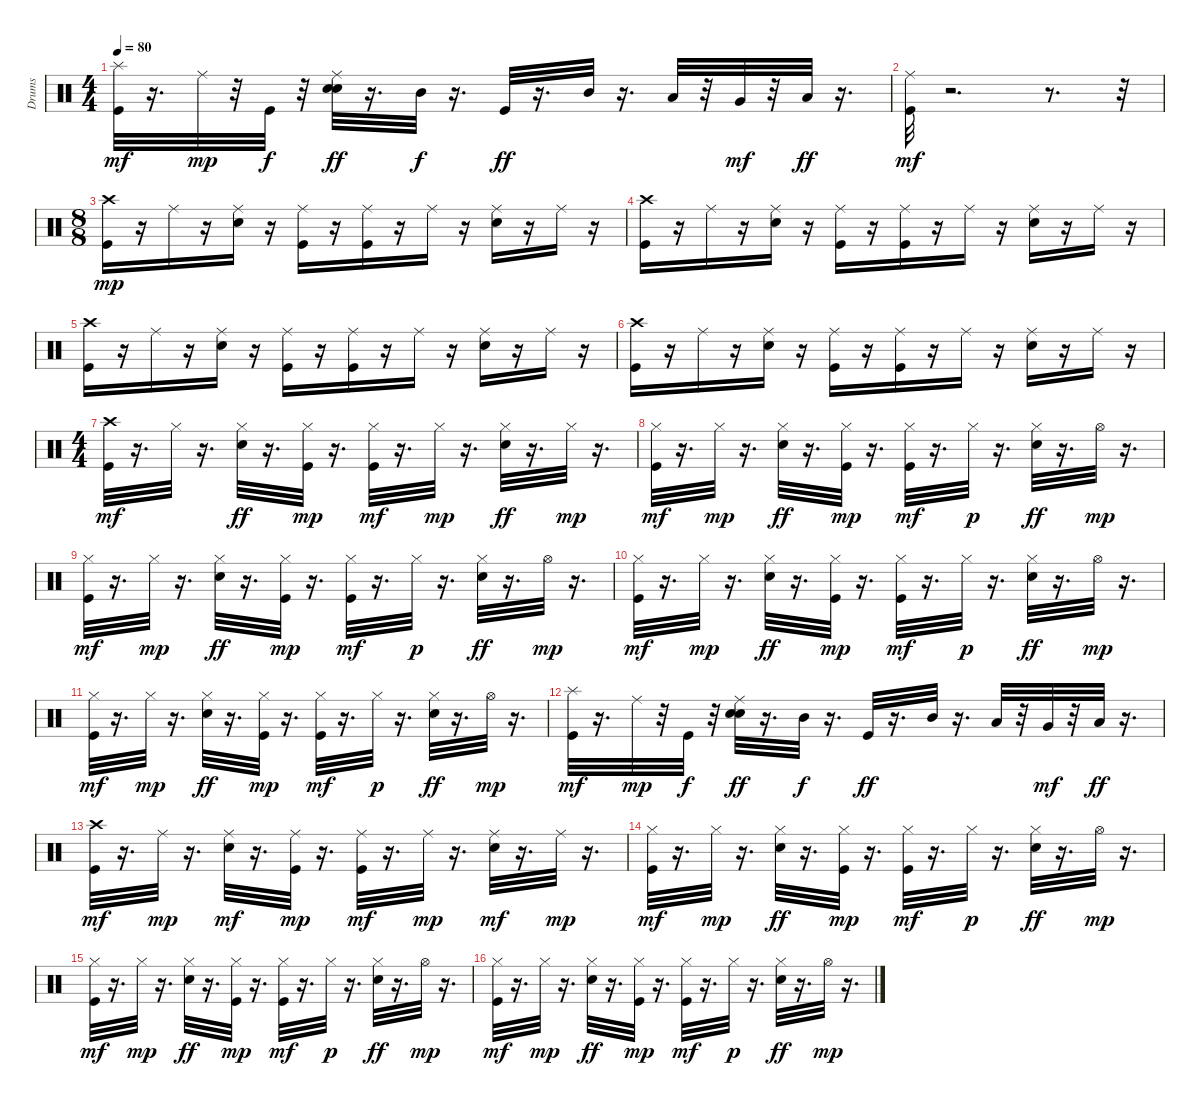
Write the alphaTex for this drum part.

\track ("Drums" "Drums") {instrument percussion}
\staff {score}
\articulation defaults
\ts (4 4)
\tempo 80
\clef neutral
\ks c
("Kick (hit)" "Splash (hit)").32{dy mf} r.16{d} "Ride (middle)".32{dy mp} r.32 "Kick (hit)".32{dy f} r.32 ("Snare (hit) 2" "Ride (middle)" "Electric Snare (hit)").32{dy ff} r.16{d} "Mid Tom (hit)".32{dy f} r.16{d} "Kick (hit)".32{dy ff} r.16{d} "Mid Tom (hit)".32 r.16{d} "Low Tom (hit)".32 r.32 "Very Low Tom (hit)".32{dy mf} r.32 "Low Floor Tom (hit)".32{dy ff} r.16{d} |
("Kick (hit)" "Ride (middle)").32{dy mf} r.2{d} r.8{d} r.32 |
\ts (8 8)
("Crash high (hit)" "Kick (hit)").16{dy mp} r.16 "Ride (middle)".16 r.16 ("Electric Snare (hit)" "Ride (middle)").16 r.16 ("Kick (hit)" "Ride (middle)").16 r.16 ("Kick (hit)" "Ride (middle)").16 r.16 "Ride (middle)".16 r.16 ("Ride (middle)" "Electric Snare (hit)").16 r.16 "Ride (middle)".16 r.16 |
("Crash high (hit)" "Kick (hit)").16 r.16 "Ride (middle)".16 r.16 ("Electric Snare (hit)" "Ride (middle)").16 r.16 ("Kick (hit)" "Ride (middle)").16 r.16 ("Kick (hit)" "Ride (middle)").16 r.16 "Ride (middle)".16 r.16 ("Ride (middle)" "Electric Snare (hit)").16 r.16 "Ride (middle)".16 r.16 |
("Crash high (hit)" "Kick (hit)").16 r.16 "Ride (middle)".16 r.16 ("Electric Snare (hit)" "Ride (middle)").16 r.16 ("Kick (hit)" "Ride (middle)").16 r.16 ("Kick (hit)" "Ride (middle)").16 r.16 "Ride (middle)".16 r.16 ("Ride (middle)" "Electric Snare (hit)").16 r.16 "Ride (middle)".16 r.16 |
("Crash high (hit)" "Kick (hit)").16 r.16 "Ride (middle)".16 r.16 ("Electric Snare (hit)" "Ride (middle)").16 r.16 ("Kick (hit)" "Ride (middle)").16 r.16 ("Kick (hit)" "Ride (middle)").16 r.16 "Ride (middle)".16 r.16 ("Ride (middle)" "Electric Snare (hit)").16 r.16 "Ride (middle)".16 r.16 |
\ts (4 4)
("Kick (hit)" "Crash high (hit)").32{dy mf} r.16{d} "Hi-Hat (closed)".32 r.16{d} ("Electric Snare (hit)" "Hi-Hat (closed)").32{dy ff} r.16{d} ("Kick (hit)" "Hi-Hat (closed)").32{dy mp} r.16{d} ("Kick (hit)" "Hi-Hat (closed)").32{dy mf} r.16{d} "Hi-Hat (closed)".32{dy mp} r.16{d} ("Electric Snare (hit)" "Hi-Hat (closed)").32{dy ff} r.16{d} "Hi-Hat (closed)".32{dy mp} r.16{d} |
("Kick (hit)" "Hi-Hat (closed)").32{dy mf} r.16{d} "Hi-Hat (closed)".32{dy mp} r.16{d} ("Electric Snare (hit)" "Hi-Hat (closed)").32{dy ff} r.16{d} ("Kick (hit)" "Hi-Hat (closed)").32{dy mp} r.16{d} ("Kick (hit)" "Hi-Hat (closed)").32{dy mf} r.16{d} "Hi-Hat (closed)".32{dy p} r.16{d} ("Electric Snare (hit)" "Hi-Hat (closed)").32{dy ff} r.16{d} "Hi-Hat (open)".32{dy mp} r.16{d} |
("Kick (hit)" "Hi-Hat (closed)").32{dy mf} r.16{d} "Hi-Hat (closed)".32{dy mp} r.16{d} ("Electric Snare (hit)" "Hi-Hat (closed)").32{dy ff} r.16{d} ("Kick (hit)" "Hi-Hat (closed)").32{dy mp} r.16{d} ("Kick (hit)" "Hi-Hat (closed)").32{dy mf} r.16{d} "Hi-Hat (closed)".32{dy p} r.16{d} ("Electric Snare (hit)" "Hi-Hat (closed)").32{dy ff} r.16{d} "Hi-Hat (open)".32{dy mp} r.16{d} |
("Kick (hit)" "Hi-Hat (closed)").32{dy mf} r.16{d} "Hi-Hat (closed)".32{dy mp} r.16{d} ("Electric Snare (hit)" "Hi-Hat (closed)").32{dy ff} r.16{d} ("Kick (hit)" "Hi-Hat (closed)").32{dy mp} r.16{d} ("Kick (hit)" "Hi-Hat (closed)").32{dy mf} r.16{d} "Hi-Hat (closed)".32{dy p} r.16{d} ("Electric Snare (hit)" "Hi-Hat (closed)").32{dy ff} r.16{d} "Hi-Hat (open)".32{dy mp} r.16{d} |
("Kick (hit)" "Hi-Hat (closed)").32{dy mf} r.16{d} "Hi-Hat (closed)".32{dy mp} r.16{d} ("Electric Snare (hit)" "Hi-Hat (closed)").32{dy ff} r.16{d} ("Kick (hit)" "Hi-Hat (closed)").32{dy mp} r.16{d} ("Kick (hit)" "Hi-Hat (closed)").32{dy mf} r.16{d} "Hi-Hat (closed)".32{dy p} r.16{d} ("Electric Snare (hit)" "Hi-Hat (closed)").32{dy ff} r.16{d} "Hi-Hat (open)".32{dy mp} r.16{d} |
("Kick (hit)" "Splash (hit)").32{dy mf} r.16{d} "Ride (middle)".32{dy mp} r.32 "Kick (hit)".32{dy f} r.32 ("Snare (hit) 2" "Ride (middle)" "Electric Snare (hit)").32{dy ff} r.16{d} "Mid Tom (hit)".32{dy f} r.16{d} "Kick (hit)".32{dy ff} r.16{d} "Mid Tom (hit)".32 r.16{d} "Low Tom (hit)".32 r.32 "Very Low Tom (hit)".32{dy mf} r.32 "Low Floor Tom (hit)".32{dy ff} r.16{d} |
("Kick (hit)" "Crash high (hit)").32{dy mf} r.16{d} "Ride (middle)".32{dy mp} r.16{d} ("Electric Snare (hit)" "Ride (middle)").32{dy mf} r.16{d} ("Kick (hit)" "Ride (middle)").32{dy mp} r.16{d} ("Kick (hit)" "Ride (middle)").32{dy mf} r.16{d} "Ride (middle)".32{dy mp} r.16{d} ("Electric Snare (hit)" "Ride (middle)").32{dy mf} r.16{d} "Ride (middle)".32{dy mp} r.16{d} |
("Kick (hit)" "Hi-Hat (closed)").32{dy mf} r.16{d} "Hi-Hat (closed)".32{dy mp} r.16{d} ("Electric Snare (hit)" "Hi-Hat (closed)").32{dy ff} r.16{d} ("Kick (hit)" "Hi-Hat (closed)").32{dy mp} r.16{d} ("Kick (hit)" "Hi-Hat (closed)").32{dy mf} r.16{d} "Hi-Hat (closed)".32{dy p} r.16{d} ("Electric Snare (hit)" "Hi-Hat (closed)").32{dy ff} r.16{d} "Hi-Hat (open)".32{dy mp} r.16{d} |
("Kick (hit)" "Hi-Hat (closed)").32{dy mf} r.16{d} "Hi-Hat (closed)".32{dy mp} r.16{d} ("Electric Snare (hit)" "Hi-Hat (closed)").32{dy ff} r.16{d} ("Kick (hit)" "Hi-Hat (closed)").32{dy mp} r.16{d} ("Kick (hit)" "Hi-Hat (closed)").32{dy mf} r.16{d} "Hi-Hat (closed)".32{dy p} r.16{d} ("Electric Snare (hit)" "Hi-Hat (closed)").32{dy ff} r.16{d} "Hi-Hat (open)".32{dy mp} r.16{d} |
("Kick (hit)" "Hi-Hat (closed)").32{dy mf} r.16{d} "Hi-Hat (closed)".32{dy mp} r.16{d} ("Electric Snare (hit)" "Hi-Hat (closed)").32{dy ff} r.16{d} ("Kick (hit)" "Hi-Hat (closed)").32{dy mp} r.16{d} ("Kick (hit)" "Hi-Hat (closed)").32{dy mf} r.16{d} "Hi-Hat (closed)".32{dy p} r.16{d} ("Electric Snare (hit)" "Hi-Hat (closed)").32{dy ff} r.16{d} "Hi-Hat (open)".32{dy mp} r.16{d}
